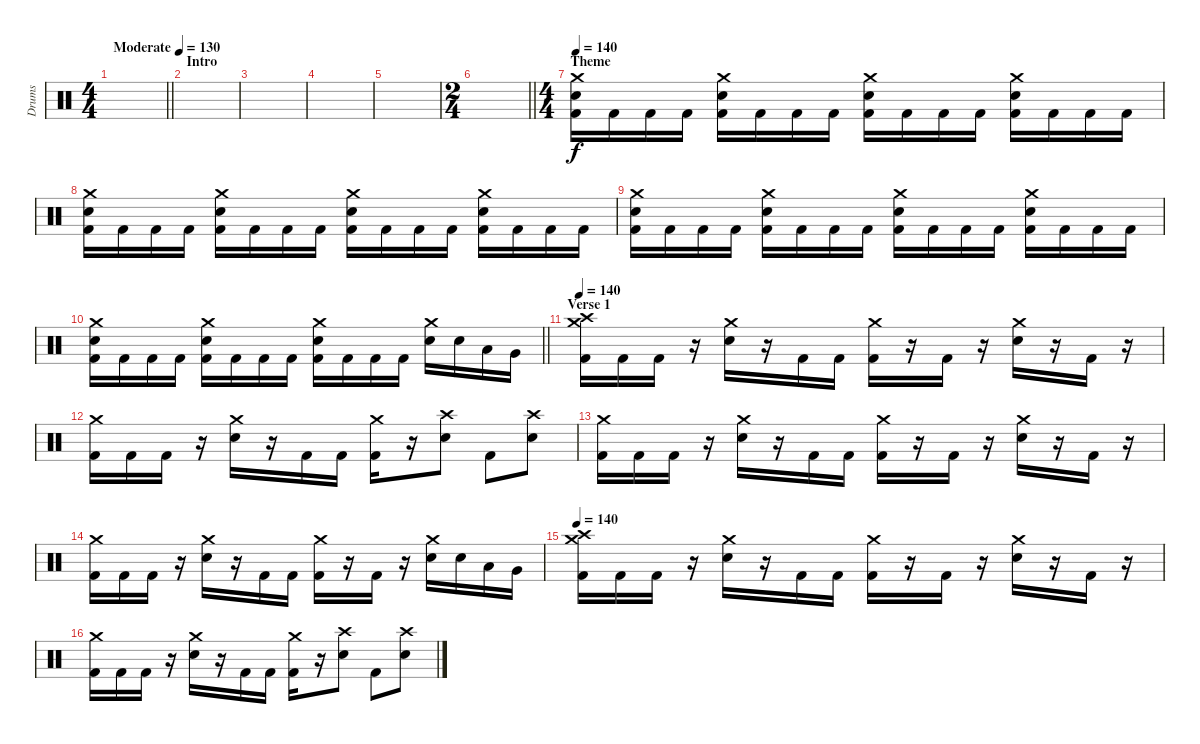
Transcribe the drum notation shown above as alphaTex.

\track ("Drums" "Drums") {instrument percussion}
\staff {score}
\articulation defaults
\ts (4 4)
\tempo (130 "Moderate")
\clef neutral
\barLineRight lightlight
\ks c
|
\section ("" "Intro")
|
|
|
|
\ts (2 4)
\barLineRight lightlight
|
\ts (4 4)
\section ("" "Theme")
\tempo 140
("Snare (hit) 2" "Kick (hit) 2" "Crash medium (hit)").16 "Kick (hit) 2".16 "Kick (hit) 2".16 "Kick (hit) 2".16 ("Snare (hit) 2" "Kick (hit) 2" "Crash medium (hit)").16 "Kick (hit) 2".16 "Kick (hit) 2".16 "Kick (hit) 2".16 ("Snare (hit) 2" "Kick (hit) 2" "Crash medium (hit)").16 "Kick (hit) 2".16 "Kick (hit) 2".16 "Kick (hit) 2".16 ("Snare (hit) 2" "Kick (hit) 2" "Crash medium (hit)").16 "Kick (hit) 2".16 "Kick (hit) 2".16 "Kick (hit) 2".16 |
("Snare (hit) 2" "Kick (hit) 2" "Crash medium (hit)").16 "Kick (hit) 2".16 "Kick (hit) 2".16 "Kick (hit) 2".16 ("Snare (hit) 2" "Kick (hit) 2" "Crash medium (hit)").16 "Kick (hit) 2".16 "Kick (hit) 2".16 "Kick (hit) 2".16 ("Snare (hit) 2" "Kick (hit) 2" "Crash medium (hit)").16 "Kick (hit) 2".16 "Kick (hit) 2".16 "Kick (hit) 2".16 ("Snare (hit) 2" "Kick (hit) 2" "Crash medium (hit)").16 "Kick (hit) 2".16 "Kick (hit) 2".16 "Kick (hit) 2".16 |
("Snare (hit) 2" "Kick (hit) 2" "Crash medium (hit)").16 "Kick (hit) 2".16 "Kick (hit) 2".16 "Kick (hit) 2".16 ("Snare (hit) 2" "Kick (hit) 2" "Crash medium (hit)").16 "Kick (hit) 2".16 "Kick (hit) 2".16 "Kick (hit) 2".16 ("Snare (hit) 2" "Kick (hit) 2" "Crash medium (hit)").16 "Kick (hit) 2".16 "Kick (hit) 2".16 "Kick (hit) 2".16 ("Snare (hit) 2" "Kick (hit) 2" "Crash medium (hit)").16 "Kick (hit) 2".16 "Kick (hit) 2".16 "Kick (hit) 2".16 |
\barLineRight lightlight
("Snare (hit) 2" "Kick (hit) 2" "Crash medium (hit)").16 "Kick (hit) 2".16 "Kick (hit) 2".16 "Kick (hit) 2".16 ("Snare (hit) 2" "Kick (hit) 2" "Crash medium (hit)").16 "Kick (hit) 2".16 "Kick (hit) 2".16 "Kick (hit) 2".16 ("Snare (hit) 2" "Kick (hit) 2" "Crash medium (hit)").16 "Kick (hit) 2".16 "Kick (hit) 2".16 "Kick (hit) 2".16 ("Snare (hit) 2" "Crash medium (hit)").16 "Snare (hit) 2".16 "Low Tom (hit)".16 "Very Low Tom (hit)".16 |
\section ("" "Verse 1")
\tempo 140
("Kick (hit) 2" "Crash medium (hit)" "Crash high (hit)").16 "Kick (hit) 2".16 "Kick (hit) 2".16 r.16 ("Snare (hit) 2" "Crash medium (hit)").16 r.16 "Kick (hit) 2".16 "Kick (hit) 2".16 ("Kick (hit) 2" "Crash medium (hit)").16 r.16 "Kick (hit) 2".16 r.16 ("Snare (hit) 2" "Crash medium (hit)").16 r.16 "Kick (hit) 2".16 r.16 |
("Kick (hit) 2" "Crash medium (hit)").16 "Kick (hit) 2".16 "Kick (hit) 2".16 r.16 ("Snare (hit) 2" "Crash medium (hit)").16 r.16 "Kick (hit) 2".16 "Kick (hit) 2".16 ("Kick (hit) 2" "Crash medium (hit)").16 r.16 ("Snare (hit) 2" "Crash high (hit)").8 "Kick (hit) 2".8 ("Snare (hit) 2" "Crash high (hit)").8 |
("Kick (hit) 2" "Crash medium (hit)").16 "Kick (hit) 2".16 "Kick (hit) 2".16 r.16 ("Snare (hit) 2" "Crash medium (hit)").16 r.16 "Kick (hit) 2".16 "Kick (hit) 2".16 ("Kick (hit) 2" "Crash medium (hit)").16 r.16 "Kick (hit) 2".16 r.16 ("Snare (hit) 2" "Crash medium (hit)").16 r.16 "Kick (hit) 2".16 r.16 |
("Kick (hit) 2" "Crash medium (hit)").16 "Kick (hit) 2".16 "Kick (hit) 2".16 r.16 ("Snare (hit) 2" "Crash medium (hit)").16 r.16 "Kick (hit) 2".16 "Kick (hit) 2".16 ("Kick (hit) 2" "Crash medium (hit)").16 r.16 "Kick (hit) 2".16 r.16 ("Snare (hit) 2" "Crash medium (hit)").16 "Snare (hit) 2".16 "Low Tom (hit)".16 "Very Low Tom (hit)".16 |
\tempo 140
("Kick (hit) 2" "Crash medium (hit)" "Crash high (hit)").16 "Kick (hit) 2".16 "Kick (hit) 2".16 r.16 ("Snare (hit) 2" "Crash medium (hit)").16 r.16 "Kick (hit) 2".16 "Kick (hit) 2".16 ("Kick (hit) 2" "Crash medium (hit)").16 r.16 "Kick (hit) 2".16 r.16 ("Snare (hit) 2" "Crash medium (hit)").16 r.16 "Kick (hit) 2".16 r.16 |
("Kick (hit) 2" "Crash medium (hit)").16 "Kick (hit) 2".16 "Kick (hit) 2".16 r.16 ("Snare (hit) 2" "Crash medium (hit)").16 r.16 "Kick (hit) 2".16 "Kick (hit) 2".16 ("Kick (hit) 2" "Crash medium (hit)").16 r.16 ("Snare (hit) 2" "Crash high (hit)").8 "Kick (hit) 2".8 ("Snare (hit) 2" "Crash high (hit)").8
